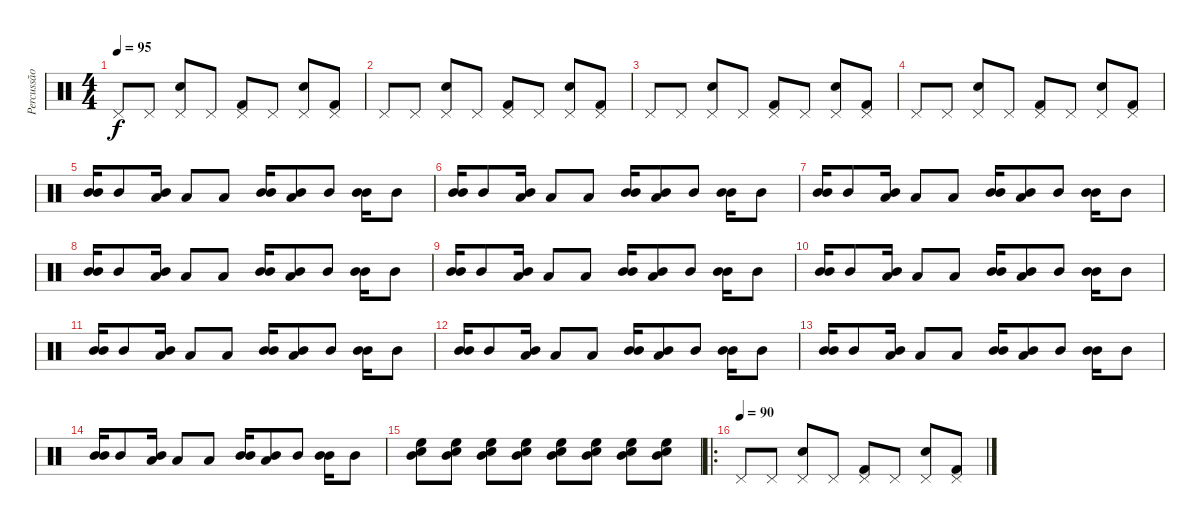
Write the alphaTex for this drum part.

\track ("Percussão" "Percussão") {instrument percussion}
\staff {score}
\articulation defaults
\ts (4 4)
\tempo 95
\clef neutral
\ks c "Pedal Hi-Hat (hit)".8{dy f} "Pedal Hi-Hat (hit)".8
("Pedal Hi-Hat (hit)" "Electric Snare (hit)").8 "Pedal Hi-Hat (hit)".8 ("Pedal Hi-Hat (hit)" "Kick (hit) 2").8 "Pedal Hi-Hat (hit)".8 ("Pedal Hi-Hat (hit)" "Electric Snare (hit)").8 ("Pedal Hi-Hat (hit)" "Kick (hit) 2").8 |
"Pedal Hi-Hat (hit)".8 "Pedal Hi-Hat (hit)".8 ("Pedal Hi-Hat (hit)" "Electric Snare (hit)").8 "Pedal Hi-Hat (hit)".8 ("Pedal Hi-Hat (hit)" "Kick (hit) 2").8 "Pedal Hi-Hat (hit)".8 ("Pedal Hi-Hat (hit)" "Electric Snare (hit)").8 ("Pedal Hi-Hat (hit)" "Kick (hit) 2").8 |
"Pedal Hi-Hat (hit)".8 "Pedal Hi-Hat (hit)".8 ("Pedal Hi-Hat (hit)" "Electric Snare (hit)").8 "Pedal Hi-Hat (hit)".8 ("Pedal Hi-Hat (hit)" "Kick (hit) 2").8 "Pedal Hi-Hat (hit)".8 ("Pedal Hi-Hat (hit)" "Electric Snare (hit)").8 ("Pedal Hi-Hat (hit)" "Kick (hit) 2").8 |
"Pedal Hi-Hat (hit)".8 "Pedal Hi-Hat (hit)".8 ("Pedal Hi-Hat (hit)" "Electric Snare (hit)").8 "Pedal Hi-Hat (hit)".8 ("Pedal Hi-Hat (hit)" "Kick (hit) 2").8 "Pedal Hi-Hat (hit)".8 ("Pedal Hi-Hat (hit)" "Electric Snare (hit)").8 ("Pedal Hi-Hat (hit)" "Kick (hit) 2").8 |
("Mid Tom (hit)" "Mid Tom (hit)").16 "Mid Tom (hit)".8 ("Low Tom (hit)" "Mid Tom (hit)").16 "Low Tom (hit)".8 "Low Tom (hit)".8 ("Mid Tom (hit)" "Mid Tom (hit)").16 ("Low Tom (hit)" "Mid Tom (hit)").8 "Mid Tom (hit)".8 ("Mid Tom (hit)" "Mid Tom (hit)").16 "Mid Tom (hit)".8 |
("Mid Tom (hit)" "Mid Tom (hit)").16 "Mid Tom (hit)".8 ("Low Tom (hit)" "Mid Tom (hit)").16 "Low Tom (hit)".8 "Low Tom (hit)".8 ("Mid Tom (hit)" "Mid Tom (hit)").16 ("Low Tom (hit)" "Mid Tom (hit)").8 "Mid Tom (hit)".8 ("Mid Tom (hit)" "Mid Tom (hit)").16 "Mid Tom (hit)".8 |
("Mid Tom (hit)" "Mid Tom (hit)").16 "Mid Tom (hit)".8 ("Low Tom (hit)" "Mid Tom (hit)").16 "Low Tom (hit)".8 "Low Tom (hit)".8 ("Mid Tom (hit)" "Mid Tom (hit)").16 ("Low Tom (hit)" "Mid Tom (hit)").8 "Mid Tom (hit)".8 ("Mid Tom (hit)" "Mid Tom (hit)").16 "Mid Tom (hit)".8 |
("Mid Tom (hit)" "Mid Tom (hit)").16 "Mid Tom (hit)".8 ("Low Tom (hit)" "Mid Tom (hit)").16 "Low Tom (hit)".8 "Low Tom (hit)".8 ("Mid Tom (hit)" "Mid Tom (hit)").16 ("Low Tom (hit)" "Mid Tom (hit)").8 "Mid Tom (hit)".8 ("Mid Tom (hit)" "Mid Tom (hit)").16 "Mid Tom (hit)".8 |
("Mid Tom (hit)" "Mid Tom (hit)").16 "Mid Tom (hit)".8 ("Low Tom (hit)" "Mid Tom (hit)").16 "Low Tom (hit)".8 "Low Tom (hit)".8 ("Mid Tom (hit)" "Mid Tom (hit)").16 ("Low Tom (hit)" "Mid Tom (hit)").8 "Mid Tom (hit)".8 ("Mid Tom (hit)" "Mid Tom (hit)").16 "Mid Tom (hit)".8 |
("Mid Tom (hit)" "Mid Tom (hit)").16 "Mid Tom (hit)".8 ("Low Tom (hit)" "Mid Tom (hit)").16 "Low Tom (hit)".8 "Low Tom (hit)".8 ("Mid Tom (hit)" "Mid Tom (hit)").16 ("Low Tom (hit)" "Mid Tom (hit)").8 "Mid Tom (hit)".8 ("Mid Tom (hit)" "Mid Tom (hit)").16 "Mid Tom (hit)".8 |
("Mid Tom (hit)" "Mid Tom (hit)").16 "Mid Tom (hit)".8 ("Low Tom (hit)" "Mid Tom (hit)").16 "Low Tom (hit)".8 "Low Tom (hit)".8 ("Mid Tom (hit)" "Mid Tom (hit)").16 ("Low Tom (hit)" "Mid Tom (hit)").8 "Mid Tom (hit)".8 ("Mid Tom (hit)" "Mid Tom (hit)").16 "Mid Tom (hit)".8 |
("Mid Tom (hit)" "Mid Tom (hit)").16 "Mid Tom (hit)".8 ("Low Tom (hit)" "Mid Tom (hit)").16 "Low Tom (hit)".8 "Low Tom (hit)".8 ("Mid Tom (hit)" "Mid Tom (hit)").16 ("Low Tom (hit)" "Mid Tom (hit)").8 "Mid Tom (hit)".8 ("Mid Tom (hit)" "Mid Tom (hit)").16 "Mid Tom (hit)".8 |
("Mid Tom (hit)" "Mid Tom (hit)").16 "Mid Tom (hit)".8 ("Low Tom (hit)" "Mid Tom (hit)").16 "Low Tom (hit)".8 "Low Tom (hit)".8 ("Mid Tom (hit)" "Mid Tom (hit)").16 ("Low Tom (hit)" "Mid Tom (hit)").8 "Mid Tom (hit)".8 ("Mid Tom (hit)" "Mid Tom (hit)").16 "Mid Tom (hit)".8 |
("Mid Tom (hit)" "Mid Tom (hit)").16 "Mid Tom (hit)".8 ("Low Tom (hit)" "Mid Tom (hit)").16 "Low Tom (hit)".8 "Low Tom (hit)".8 ("Mid Tom (hit)" "Mid Tom (hit)").16 ("Low Tom (hit)" "Mid Tom (hit)").8 "Mid Tom (hit)".8 ("Mid Tom (hit)" "Mid Tom (hit)").16 "Mid Tom (hit)".8 |
("High Floor Tom (hit)" "Mid Tom (hit)" "Snare (hit) 2").8 ("High Floor Tom (hit)" "Mid Tom (hit)" "Snare (hit) 2").8 ("High Floor Tom (hit)" "Mid Tom (hit)" "Snare (hit) 2").8 ("High Floor Tom (hit)" "Mid Tom (hit)" "Snare (hit) 2").8 ("High Floor Tom (hit)" "Mid Tom (hit)" "Snare (hit) 2").8 ("High Floor Tom (hit)" "Mid Tom (hit)" "Snare (hit) 2").8 ("High Floor Tom (hit)" "Mid Tom (hit)" "Snare (hit) 2").8 ("High Floor Tom (hit)" "Mid Tom (hit)" "Snare (hit) 2").8 |
\ro
\tempo (90)
"Pedal Hi-Hat (hit)".8 "Pedal Hi-Hat (hit)".8 ("Pedal Hi-Hat (hit)" "Electric Snare (hit)").8 "Pedal Hi-Hat (hit)".8 ("Pedal Hi-Hat (hit)" "Kick (hit) 2").8 "Pedal Hi-Hat (hit)".8 ("Pedal Hi-Hat (hit)" "Electric Snare (hit)").8 ("Pedal Hi-Hat (hit)" "Kick (hit) 2").8
